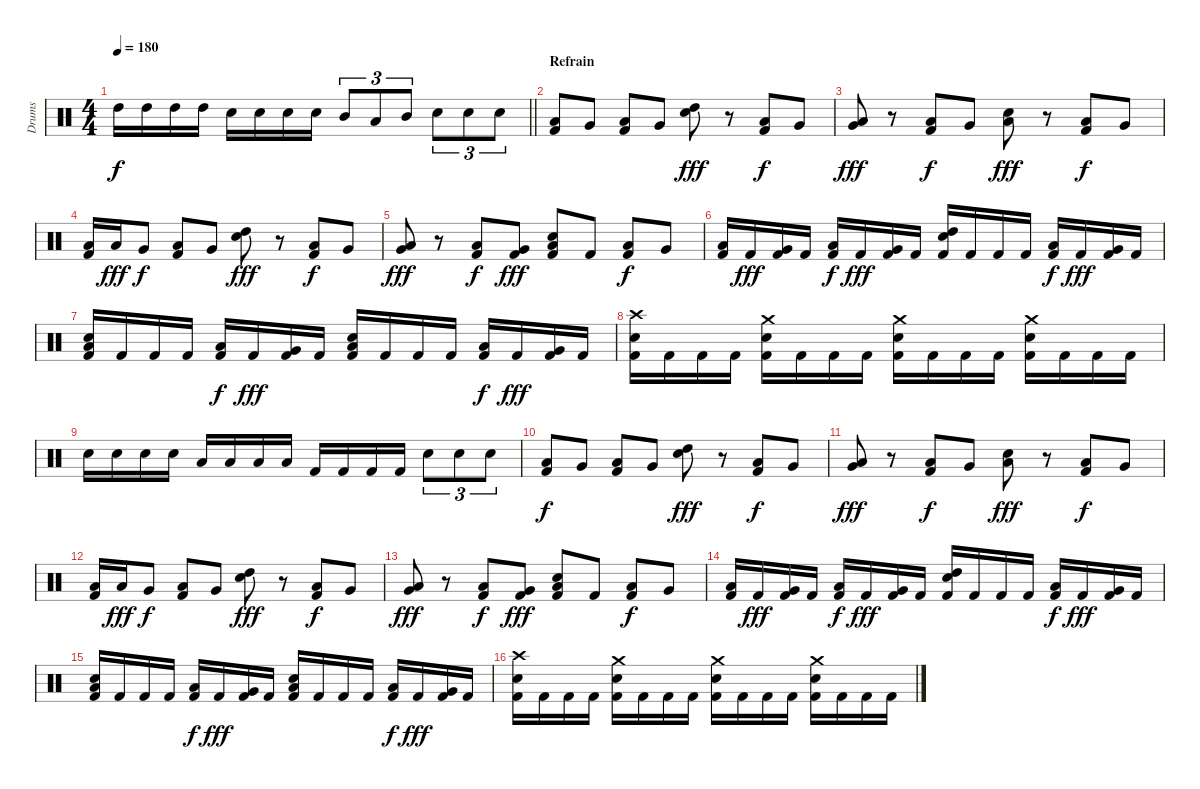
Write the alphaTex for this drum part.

\track ("Drums" "Drums") {instrument percussion}
\staff {score}
\articulation defaults
\ts (4 4)
\tempo 180
\clef neutral
\barLineRight lightlight
\ks c "High Tom (hit)".16{dy f} "High Tom (hit)".16 "High Tom (hit)".16 "High Tom (hit)".16 "Electric Snare (hit)".16 "Electric Snare (hit)".16 "Electric Snare (hit)".16 "Electric Snare (hit)".16 "Mid Tom (hit)".8{tu (3 2)} "Low Tom (hit)".8{tu (3 2)} "Mid Tom (hit)".8{tu (3 2)} "Electric Snare (hit)".8{tu (3 2)} "Electric Snare (hit)".8{tu (3 2)} "Electric Snare (hit)".8{tu (3 2)}
|
\section ("" "Refrain")
("Low Tom (hit)" "Kick (hit) 2").8 "Very Low Tom (hit)".8 ("Low Tom (hit)" "Kick (hit) 2").8 "Very Low Tom (hit)".8 ("High Tom (hit)" "Electric Snare (hit)").8{dy fff} r.8 ("Low Tom (hit)" "Kick (hit) 2").8{dy f} "Very Low Tom (hit)".8 |
("Low Tom (hit)" "Very Low Tom (hit)").8{dy fff} r.8 ("Low Tom (hit)" "Kick (hit) 2").8{dy f} "Very Low Tom (hit)".8 ("Low Tom (hit)" "Electric Snare (hit)").8{dy fff} r.8 ("Low Tom (hit)" "Kick (hit) 2").8{dy f} "Very Low Tom (hit)".8 |
("Low Tom (hit)" "Kick (hit) 2").16 "Low Tom (hit)".16{dy fff} "Very Low Tom (hit)".8{dy f} ("Low Tom (hit)" "Kick (hit) 2").8 "Very Low Tom (hit)".8 ("High Tom (hit)" "Electric Snare (hit)").8{dy fff} r.8 ("Low Tom (hit)" "Kick (hit) 2").8{dy f} "Very Low Tom (hit)".8 |
("Low Tom (hit)" "Very Low Tom (hit)").8{dy fff} r.8 ("Low Tom (hit)" "Kick (hit) 2").8{dy f} ("Very Low Tom (hit)" "Kick (hit) 2").8{dy fff} ("Low Tom (hit)" "Electric Snare (hit)" "Kick (hit) 2").8 "Kick (hit) 2".8 ("Low Tom (hit)" "Kick (hit) 2").8{dy f} "Very Low Tom (hit)".8 |
("Low Tom (hit)" "Kick (hit) 2").16 "Kick (hit) 2".16{dy fff} ("Very Low Tom (hit)" "Kick (hit) 2").16 "Kick (hit) 2".16 ("Low Tom (hit)" "Kick (hit) 2").16{dy f} "Kick (hit) 2".16{dy fff} ("Very Low Tom (hit)" "Kick (hit) 2").16 "Kick (hit) 2".16 ("High Tom (hit)" "Electric Snare (hit)" "Kick (hit) 2").16 "Kick (hit) 2".16 "Kick (hit) 2".16 "Kick (hit) 2".16 ("Low Tom (hit)" "Kick (hit) 2").16{dy f} "Kick (hit) 2".16{dy fff} ("Very Low Tom (hit)" "Kick (hit) 2").16 "Kick (hit) 2".16 |
("Low Tom (hit)" "Electric Snare (hit)" "Kick (hit) 2").16 "Kick (hit) 2".16 "Kick (hit) 2".16 "Kick (hit) 2".16 ("Low Tom (hit)" "Kick (hit) 2").16{dy f} "Kick (hit) 2".16{dy fff} ("Very Low Tom (hit)" "Kick (hit) 2").16 "Kick (hit) 2".16 ("Low Tom (hit)" "Electric Snare (hit)" "Kick (hit) 2").16 "Kick (hit) 2".16 "Kick (hit) 2".16 "Kick (hit) 2".16 ("Low Tom (hit)" "Kick (hit) 2").16{dy f} "Kick (hit) 2".16{dy fff} ("Very Low Tom (hit)" "Kick (hit) 2").16 "Kick (hit) 2".16 |
("Crash high (hit)" "Electric Snare (hit)" "Kick (hit) 2").16 "Kick (hit) 2".16 "Kick (hit) 2".16 "Kick (hit) 2".16 ("Crash medium (hit)" "Electric Snare (hit)" "Kick (hit) 2").16 "Kick (hit) 2".16 "Kick (hit) 2".16 "Kick (hit) 2".16 ("Crash medium (hit)" "Electric Snare (hit)" "Kick (hit) 2").16 "Kick (hit) 2".16 "Kick (hit) 2".16 "Kick (hit) 2".16 ("Crash medium (hit)" "Electric Snare (hit)" "Kick (hit) 2").16 "Kick (hit) 2".16 "Kick (hit) 2".16 "Kick (hit) 2".16 |
"Electric Snare (hit)".16 "Electric Snare (hit)".16 "Electric Snare (hit)".16 "Electric Snare (hit)".16 "Low Tom (hit)".16 "Low Tom (hit)".16 "Low Tom (hit)".16 "Low Tom (hit)".16 "Kick (hit) 2".16 "Kick (hit) 2".16 "Kick (hit) 2".16 "Kick (hit) 2".16 "Electric Snare (hit)".8{tu (3 2)} "Electric Snare (hit)".8{tu (3 2)} "Electric Snare (hit)".8{tu (3 2)} |
("Low Tom (hit)" "Kick (hit) 2").8{dy f} "Very Low Tom (hit)".8 ("Low Tom (hit)" "Kick (hit) 2").8 "Very Low Tom (hit)".8 ("High Tom (hit)" "Electric Snare (hit)").8{dy fff} r.8 ("Low Tom (hit)" "Kick (hit) 2").8{dy f} "Very Low Tom (hit)".8 |
("Low Tom (hit)" "Very Low Tom (hit)").8{dy fff} r.8 ("Low Tom (hit)" "Kick (hit) 2").8{dy f} "Very Low Tom (hit)".8 ("Low Tom (hit)" "Electric Snare (hit)").8{dy fff} r.8 ("Low Tom (hit)" "Kick (hit) 2").8{dy f} "Very Low Tom (hit)".8 |
("Low Tom (hit)" "Kick (hit) 2").16 "Low Tom (hit)".16{dy fff} "Very Low Tom (hit)".8{dy f} ("Low Tom (hit)" "Kick (hit) 2").8 "Very Low Tom (hit)".8 ("High Tom (hit)" "Electric Snare (hit)").8{dy fff} r.8 ("Low Tom (hit)" "Kick (hit) 2").8{dy f} "Very Low Tom (hit)".8 |
("Low Tom (hit)" "Very Low Tom (hit)").8{dy fff} r.8 ("Low Tom (hit)" "Kick (hit) 2").8{dy f} ("Very Low Tom (hit)" "Kick (hit) 2").8{dy fff} ("Low Tom (hit)" "Electric Snare (hit)" "Kick (hit) 2").8 "Kick (hit) 2".8 ("Low Tom (hit)" "Kick (hit) 2").8{dy f} "Very Low Tom (hit)".8 |
("Low Tom (hit)" "Kick (hit) 2").16 "Kick (hit) 2".16{dy fff} ("Very Low Tom (hit)" "Kick (hit) 2").16 "Kick (hit) 2".16 ("Low Tom (hit)" "Kick (hit) 2").16{dy f} "Kick (hit) 2".16{dy fff} ("Very Low Tom (hit)" "Kick (hit) 2").16 "Kick (hit) 2".16 ("High Tom (hit)" "Electric Snare (hit)" "Kick (hit) 2").16 "Kick (hit) 2".16 "Kick (hit) 2".16 "Kick (hit) 2".16 ("Low Tom (hit)" "Kick (hit) 2").16{dy f} "Kick (hit) 2".16{dy fff} ("Very Low Tom (hit)" "Kick (hit) 2").16 "Kick (hit) 2".16 |
("Low Tom (hit)" "Electric Snare (hit)" "Kick (hit) 2").16 "Kick (hit) 2".16 "Kick (hit) 2".16 "Kick (hit) 2".16 ("Low Tom (hit)" "Kick (hit) 2").16{dy f} "Kick (hit) 2".16{dy fff} ("Very Low Tom (hit)" "Kick (hit) 2").16 "Kick (hit) 2".16 ("Low Tom (hit)" "Electric Snare (hit)" "Kick (hit) 2").16 "Kick (hit) 2".16 "Kick (hit) 2".16 "Kick (hit) 2".16 ("Low Tom (hit)" "Kick (hit) 2").16{dy f} "Kick (hit) 2".16{dy fff} ("Very Low Tom (hit)" "Kick (hit) 2").16 "Kick (hit) 2".16 |
("Crash high (hit)" "Electric Snare (hit)" "Kick (hit) 2").16 "Kick (hit) 2".16 "Kick (hit) 2".16 "Kick (hit) 2".16 ("Crash medium (hit)" "Electric Snare (hit)" "Kick (hit) 2").16 "Kick (hit) 2".16 "Kick (hit) 2".16 "Kick (hit) 2".16 ("Crash medium (hit)" "Electric Snare (hit)" "Kick (hit) 2").16 "Kick (hit) 2".16 "Kick (hit) 2".16 "Kick (hit) 2".16 ("Crash medium (hit)" "Electric Snare (hit)" "Kick (hit) 2").16 "Kick (hit) 2".16 "Kick (hit) 2".16 "Kick (hit) 2".16
